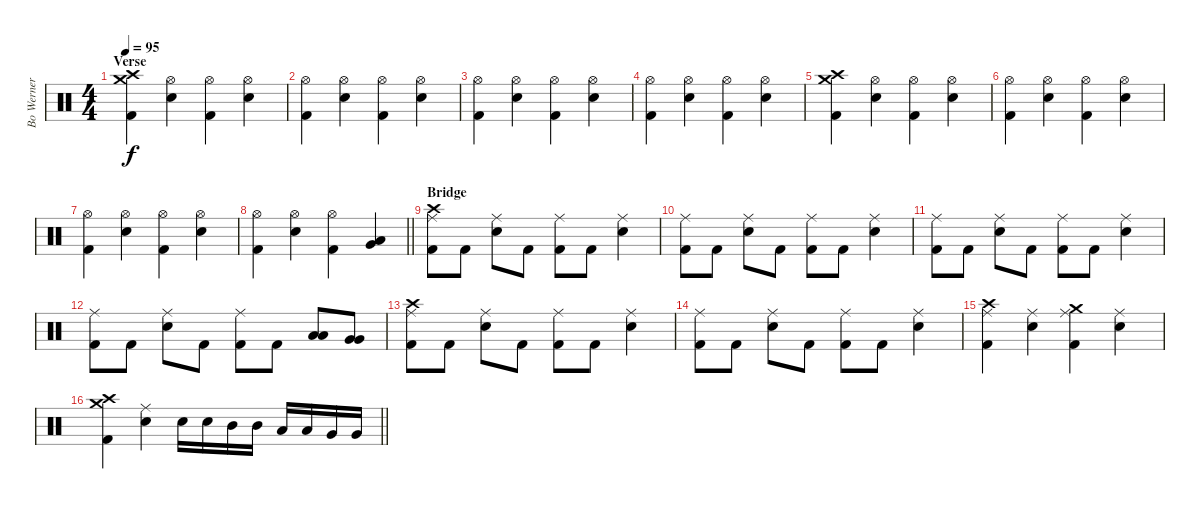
\track ("Bo Werner" "Bo Werner") {instrument percussion}
\staff {score}
\articulation defaults
\ts (4 4)
\section ("" "Verse")
\tempo 95
\clef neutral
\ks c
("Crash medium (hit)" "Crash high (hit)" "Kick (hit) 2").4{dy f} ("Hi-Hat (open)" "Snare (hit) 2").4 ("Hi-Hat (open)" "Kick (hit) 2").4 ("Hi-Hat (open)" "Snare (hit) 2").4 |
("Hi-Hat (open)" "Kick (hit) 2").4 ("Hi-Hat (open)" "Snare (hit) 2").4 ("Hi-Hat (open)" "Kick (hit) 2").4 ("Hi-Hat (open)" "Snare (hit) 2").4 |
("Hi-Hat (open)" "Kick (hit) 2").4 ("Hi-Hat (open)" "Snare (hit) 2").4 ("Hi-Hat (open)" "Kick (hit) 2").4 ("Hi-Hat (open)" "Snare (hit) 2").4 |
("Hi-Hat (open)" "Kick (hit) 2").4 ("Hi-Hat (open)" "Snare (hit) 2").4 ("Hi-Hat (open)" "Kick (hit) 2").4 ("Hi-Hat (open)" "Snare (hit) 2").4 |
("Crash high (hit)" "Crash medium (hit)" "Kick (hit) 2").4 ("Hi-Hat (open)" "Snare (hit) 2").4 ("Hi-Hat (open)" "Kick (hit) 2").4 ("Hi-Hat (open)" "Snare (hit) 2").4 |
("Hi-Hat (open)" "Kick (hit) 2").4 ("Hi-Hat (open)" "Snare (hit) 2").4 ("Hi-Hat (open)" "Kick (hit) 2").4 ("Hi-Hat (open)" "Snare (hit) 2").4 |
("Hi-Hat (open)" "Kick (hit) 2").4 ("Hi-Hat (open)" "Snare (hit) 2").4 ("Hi-Hat (open)" "Kick (hit) 2").4 ("Hi-Hat (open)" "Snare (hit) 2").4 |
\barLineRight lightlight
("Hi-Hat (open)" "Kick (hit) 2").4 ("Hi-Hat (open)" "Snare (hit) 2").4 ("Hi-Hat (open)" "Kick (hit) 2").4 ("Low Tom (hit)" "Very Low Tom (hit)").4 |
\section ("" "Bridge")
("Crash high (hit)" "Ride (middle)" "Kick (hit) 2").8 "Kick (hit) 2".8 ("Ride (middle)" "Snare (hit) 2").8 "Kick (hit) 2".8 ("Ride (middle)" "Kick (hit) 2").8 "Kick (hit) 2".8 ("Ride (middle)" "Snare (hit) 2").4 |
("Ride (middle)" "Kick (hit) 2").8 "Kick (hit) 2".8 ("Ride (middle)" "Snare (hit) 2").8 "Kick (hit) 2".8 ("Ride (middle)" "Kick (hit) 2").8 "Kick (hit) 2".8 ("Ride (middle)" "Snare (hit) 2").4 |
("Ride (middle)" "Kick (hit) 2").8 "Kick (hit) 2".8 ("Ride (middle)" "Snare (hit) 2").8 "Kick (hit) 2".8 ("Ride (middle)" "Kick (hit) 2").8 "Kick (hit) 2".8 ("Ride (middle)" "Snare (hit) 2").4 |
("Ride (middle)" "Kick (hit) 2").8 "Kick (hit) 2".8 ("Ride (middle)" "Snare (hit) 2").8 "Kick (hit) 2".8 ("Ride (middle)" "Kick (hit) 2").8 "Kick (hit) 2".8 ("Low Tom (hit)" "Low Tom (hit)").8 ("Very Low Tom (hit)" "Very Low Tom (hit)").8 |
("Crash high (hit)" "Ride (middle)" "Kick (hit) 2").8 "Kick (hit) 2".8 ("Ride (middle)" "Snare (hit) 2").8 "Kick (hit) 2".8 ("Ride (middle)" "Kick (hit) 2").8 "Kick (hit) 2".8 ("Ride (middle)" "Snare (hit) 2").4 |
("Ride (middle)" "Kick (hit) 2").8 "Kick (hit) 2".8 ("Ride (middle)" "Snare (hit) 2").8 "Kick (hit) 2".8 ("Ride (middle)" "Kick (hit) 2").8 "Kick (hit) 2".8 ("Ride (middle)" "Snare (hit) 2").4 |
("Crash high (hit)" "Ride (middle)" "Kick (hit) 2").4 ("Ride (middle)" "Snare (hit) 2").4 ("Crash medium (hit)" "Ride (middle)" "Kick (hit) 2").4 ("Ride (middle)" "Snare (hit) 2").4 |
\barLineRight lightlight
("Crash high (hit)" "Crash medium (hit)" "Kick (hit) 2").4 ("Ride (middle)" "Snare (hit) 2").4 "Snare (hit) 2".16 "Snare (hit) 2".16 "Mid Tom (hit)".16 "Mid Tom (hit)".16 "Low Tom (hit)".16 "Low Tom (hit)".16 "Very Low Tom (hit)".16 "Very Low Tom (hit)".16
